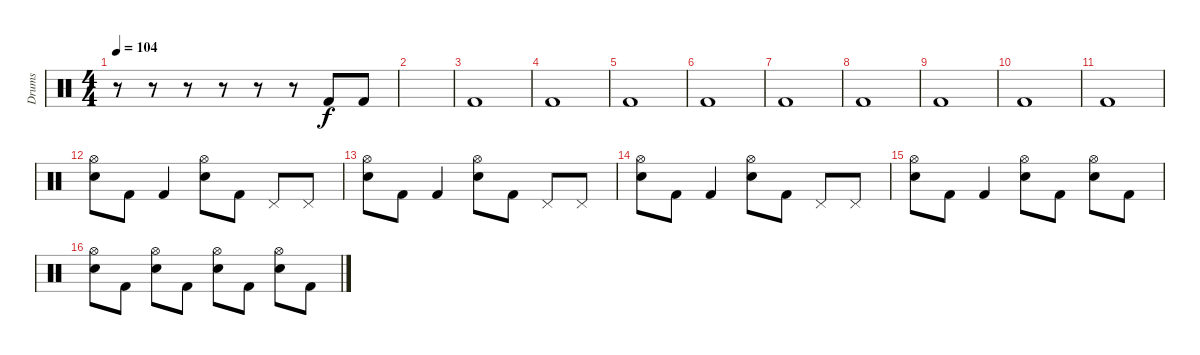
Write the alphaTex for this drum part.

\track ("Drums" "Drums") {instrument percussion}
\staff {score}
\articulation defaults
\ts (4 4)
\tempo 104
\clef neutral
\ks c
r.8{dy f} r.8 r.8 r.8 r.8 r.8 "Kick (hit) 2".8 "Kick (hit) 2".8 |
|
"Kick (hit) 2".1 |
"Kick (hit) 2".1 |
"Kick (hit) 2".1 |
"Kick (hit) 2".1 |
"Kick (hit) 2".1 |
"Kick (hit) 2".1 |
"Kick (hit) 2".1 |
"Kick (hit) 2".1 |
"Kick (hit) 2".1 |
("Hi-Hat (open)" "Electric Snare (hit)").8 "Kick (hit) 2".8 "Kick (hit) 2".4 ("Hi-Hat (open)" "Electric Snare (hit)").8 "Kick (hit) 2".8 "Pedal Hi-Hat (hit)".8 "Pedal Hi-Hat (hit)".8 |
("Hi-Hat (open)" "Electric Snare (hit)").8 "Kick (hit) 2".8 "Kick (hit) 2".4 ("Hi-Hat (open)" "Electric Snare (hit)").8 "Kick (hit) 2".8 "Pedal Hi-Hat (hit)".8 "Pedal Hi-Hat (hit)".8 |
("Hi-Hat (open)" "Electric Snare (hit)").8 "Kick (hit) 2".8 "Kick (hit) 2".4 ("Hi-Hat (open)" "Electric Snare (hit)").8 "Kick (hit) 2".8 "Pedal Hi-Hat (hit)".8 "Pedal Hi-Hat (hit)".8 |
("Hi-Hat (open)" "Electric Snare (hit)").8 "Kick (hit) 2".8 "Kick (hit) 2".4 ("Hi-Hat (open)" "Electric Snare (hit)").8 "Kick (hit) 2".8 ("Hi-Hat (open)" "Electric Snare (hit)").8 "Kick (hit) 2".8 |
("Hi-Hat (open)" "Electric Snare (hit)").8 "Kick (hit) 2".8 ("Hi-Hat (open)" "Electric Snare (hit)").8 "Kick (hit) 2".8 ("Hi-Hat (open)" "Electric Snare (hit)").8 "Kick (hit) 2".8 ("Hi-Hat (open)" "Electric Snare (hit)").8 "Kick (hit) 2".8
